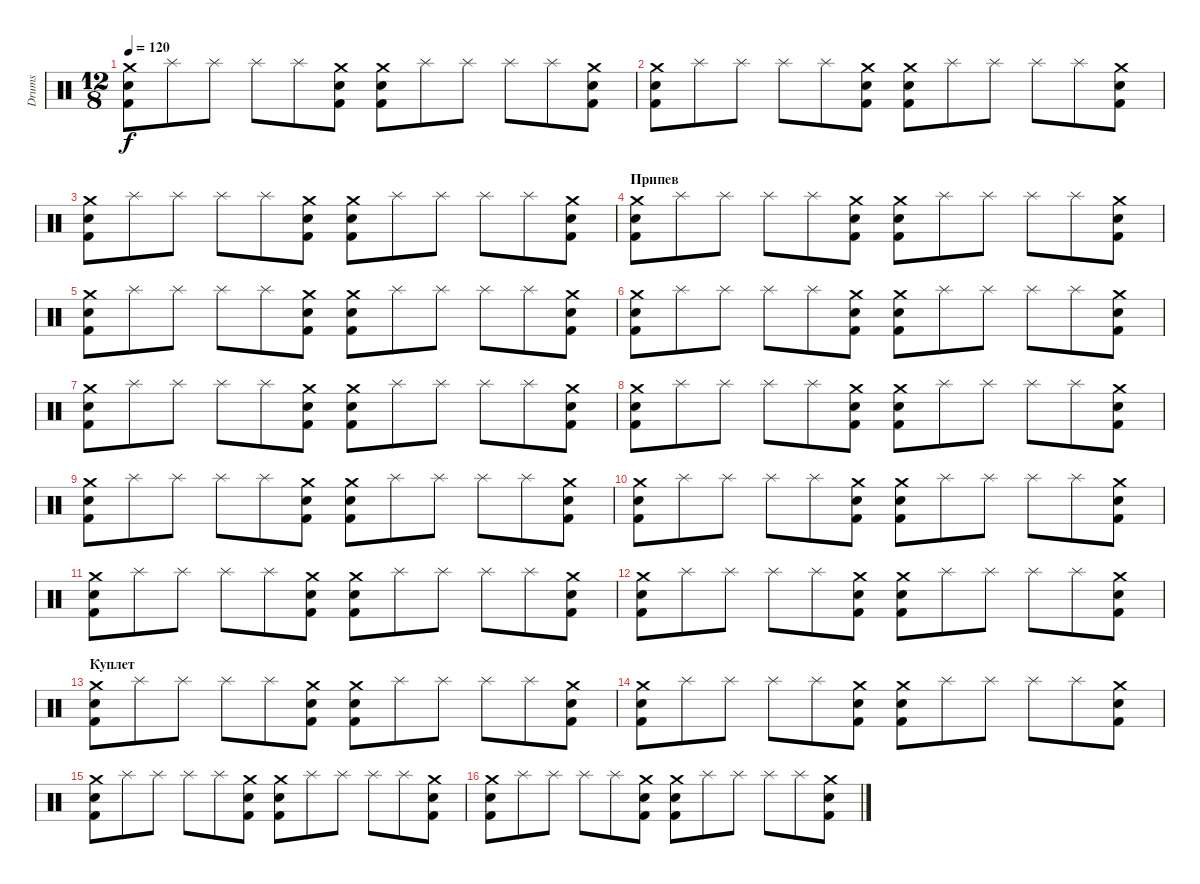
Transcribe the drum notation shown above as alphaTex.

\track ("Drums" "Drums") {instrument percussion}
\staff {score}
\articulation defaults
\ts (12 8)
\tempo 120
\clef neutral
\ks c
("Crash medium (hit)" "Snare (hit) 2" "Kick (hit) 2").8{dy f} "Splash (hit)".8 "Splash (hit)".8 "Splash (hit)".8 "Splash (hit)".8 ("Crash medium (hit)" "Snare (hit) 2" "Kick (hit) 2").8 ("Crash medium (hit)" "Snare (hit) 2" "Kick (hit) 2").8 "Splash (hit)".8 "Splash (hit)".8 "Splash (hit)".8 "Splash (hit)".8 ("Crash medium (hit)" "Snare (hit) 2" "Kick (hit) 2").8 |
("Crash medium (hit)" "Snare (hit) 2" "Kick (hit) 2").8 "Splash (hit)".8 "Splash (hit)".8 "Splash (hit)".8 "Splash (hit)".8 ("Crash medium (hit)" "Snare (hit) 2" "Kick (hit) 2").8 ("Crash medium (hit)" "Snare (hit) 2" "Kick (hit) 2").8 "Splash (hit)".8 "Splash (hit)".8 "Splash (hit)".8 "Splash (hit)".8 ("Crash medium (hit)" "Snare (hit) 2" "Kick (hit) 2").8 |
("Crash medium (hit)" "Snare (hit) 2" "Kick (hit) 2").8 "Splash (hit)".8 "Splash (hit)".8 "Splash (hit)".8 "Splash (hit)".8 ("Crash medium (hit)" "Snare (hit) 2" "Kick (hit) 2").8 ("Crash medium (hit)" "Snare (hit) 2" "Kick (hit) 2").8 "Splash (hit)".8 "Splash (hit)".8 "Splash (hit)".8 "Splash (hit)".8 ("Crash medium (hit)" "Snare (hit) 2" "Kick (hit) 2").8 |
\section ("" "Припев")
("Crash medium (hit)" "Snare (hit) 2" "Kick (hit) 2").8 "Splash (hit)".8 "Splash (hit)".8 "Splash (hit)".8 "Splash (hit)".8 ("Crash medium (hit)" "Snare (hit) 2" "Kick (hit) 2").8 ("Crash medium (hit)" "Snare (hit) 2" "Kick (hit) 2").8 "Splash (hit)".8 "Splash (hit)".8 "Splash (hit)".8 "Splash (hit)".8 ("Crash medium (hit)" "Snare (hit) 2" "Kick (hit) 2").8 |
("Crash medium (hit)" "Snare (hit) 2" "Kick (hit) 2").8 "Splash (hit)".8 "Splash (hit)".8 "Splash (hit)".8 "Splash (hit)".8 ("Crash medium (hit)" "Snare (hit) 2" "Kick (hit) 2").8 ("Crash medium (hit)" "Snare (hit) 2" "Kick (hit) 2").8 "Splash (hit)".8 "Splash (hit)".8 "Splash (hit)".8 "Splash (hit)".8 ("Crash medium (hit)" "Snare (hit) 2" "Kick (hit) 2").8 |
("Crash medium (hit)" "Snare (hit) 2" "Kick (hit) 2").8 "Splash (hit)".8 "Splash (hit)".8 "Splash (hit)".8 "Splash (hit)".8 ("Crash medium (hit)" "Snare (hit) 2" "Kick (hit) 2").8 ("Crash medium (hit)" "Snare (hit) 2" "Kick (hit) 2").8 "Splash (hit)".8 "Splash (hit)".8 "Splash (hit)".8 "Splash (hit)".8 ("Crash medium (hit)" "Snare (hit) 2" "Kick (hit) 2").8 |
("Crash medium (hit)" "Snare (hit) 2" "Kick (hit) 2").8 "Splash (hit)".8 "Splash (hit)".8 "Splash (hit)".8 "Splash (hit)".8 ("Crash medium (hit)" "Snare (hit) 2" "Kick (hit) 2").8 ("Crash medium (hit)" "Snare (hit) 2" "Kick (hit) 2").8 "Splash (hit)".8 "Splash (hit)".8 "Splash (hit)".8 "Splash (hit)".8 ("Crash medium (hit)" "Snare (hit) 2" "Kick (hit) 2").8 |
("Crash medium (hit)" "Snare (hit) 2" "Kick (hit) 2").8 "Splash (hit)".8 "Splash (hit)".8 "Splash (hit)".8 "Splash (hit)".8 ("Crash medium (hit)" "Snare (hit) 2" "Kick (hit) 2").8 ("Crash medium (hit)" "Snare (hit) 2" "Kick (hit) 2").8 "Splash (hit)".8 "Splash (hit)".8 "Splash (hit)".8 "Splash (hit)".8 ("Crash medium (hit)" "Snare (hit) 2" "Kick (hit) 2").8 |
("Crash medium (hit)" "Snare (hit) 2" "Kick (hit) 2").8 "Splash (hit)".8 "Splash (hit)".8 "Splash (hit)".8 "Splash (hit)".8 ("Crash medium (hit)" "Snare (hit) 2" "Kick (hit) 2").8 ("Crash medium (hit)" "Snare (hit) 2" "Kick (hit) 2").8 "Splash (hit)".8 "Splash (hit)".8 "Splash (hit)".8 "Splash (hit)".8 ("Crash medium (hit)" "Snare (hit) 2" "Kick (hit) 2").8 |
("Crash medium (hit)" "Snare (hit) 2" "Kick (hit) 2").8 "Splash (hit)".8 "Splash (hit)".8 "Splash (hit)".8 "Splash (hit)".8 ("Crash medium (hit)" "Snare (hit) 2" "Kick (hit) 2").8 ("Crash medium (hit)" "Snare (hit) 2" "Kick (hit) 2").8 "Splash (hit)".8 "Splash (hit)".8 "Splash (hit)".8 "Splash (hit)".8 ("Crash medium (hit)" "Snare (hit) 2" "Kick (hit) 2").8 |
("Crash medium (hit)" "Snare (hit) 2" "Kick (hit) 2").8 "Splash (hit)".8 "Splash (hit)".8 "Splash (hit)".8 "Splash (hit)".8 ("Crash medium (hit)" "Snare (hit) 2" "Kick (hit) 2").8 ("Crash medium (hit)" "Snare (hit) 2" "Kick (hit) 2").8 "Splash (hit)".8 "Splash (hit)".8 "Splash (hit)".8 "Splash (hit)".8 ("Crash medium (hit)" "Snare (hit) 2" "Kick (hit) 2").8 |
("Crash medium (hit)" "Snare (hit) 2" "Kick (hit) 2").8 "Splash (hit)".8 "Splash (hit)".8 "Splash (hit)".8 "Splash (hit)".8 ("Crash medium (hit)" "Snare (hit) 2" "Kick (hit) 2").8 ("Crash medium (hit)" "Snare (hit) 2" "Kick (hit) 2").8 "Splash (hit)".8 "Splash (hit)".8 "Splash (hit)".8 "Splash (hit)".8 ("Crash medium (hit)" "Snare (hit) 2" "Kick (hit) 2").8 |
\section ("" "Куплет")
("Crash medium (hit)" "Snare (hit) 2" "Kick (hit) 2").8 "Splash (hit)".8 "Splash (hit)".8 "Splash (hit)".8 "Splash (hit)".8 ("Crash medium (hit)" "Snare (hit) 2" "Kick (hit) 2").8 ("Crash medium (hit)" "Snare (hit) 2" "Kick (hit) 2").8 "Splash (hit)".8 "Splash (hit)".8 "Splash (hit)".8 "Splash (hit)".8 ("Crash medium (hit)" "Snare (hit) 2" "Kick (hit) 2").8 |
("Crash medium (hit)" "Snare (hit) 2" "Kick (hit) 2").8 "Splash (hit)".8 "Splash (hit)".8 "Splash (hit)".8 "Splash (hit)".8 ("Crash medium (hit)" "Snare (hit) 2" "Kick (hit) 2").8 ("Crash medium (hit)" "Snare (hit) 2" "Kick (hit) 2").8 "Splash (hit)".8 "Splash (hit)".8 "Splash (hit)".8 "Splash (hit)".8 ("Crash medium (hit)" "Snare (hit) 2" "Kick (hit) 2").8 |
("Crash medium (hit)" "Snare (hit) 2" "Kick (hit) 2").8 "Splash (hit)".8 "Splash (hit)".8 "Splash (hit)".8 "Splash (hit)".8 ("Crash medium (hit)" "Snare (hit) 2" "Kick (hit) 2").8 ("Crash medium (hit)" "Snare (hit) 2" "Kick (hit) 2").8 "Splash (hit)".8 "Splash (hit)".8 "Splash (hit)".8 "Splash (hit)".8 ("Crash medium (hit)" "Snare (hit) 2" "Kick (hit) 2").8 |
("Crash medium (hit)" "Snare (hit) 2" "Kick (hit) 2").8 "Splash (hit)".8 "Splash (hit)".8 "Splash (hit)".8 "Splash (hit)".8 ("Crash medium (hit)" "Snare (hit) 2" "Kick (hit) 2").8 ("Crash medium (hit)" "Snare (hit) 2" "Kick (hit) 2").8 "Splash (hit)".8 "Splash (hit)".8 "Splash (hit)".8 "Splash (hit)".8 ("Crash medium (hit)" "Snare (hit) 2" "Kick (hit) 2").8
